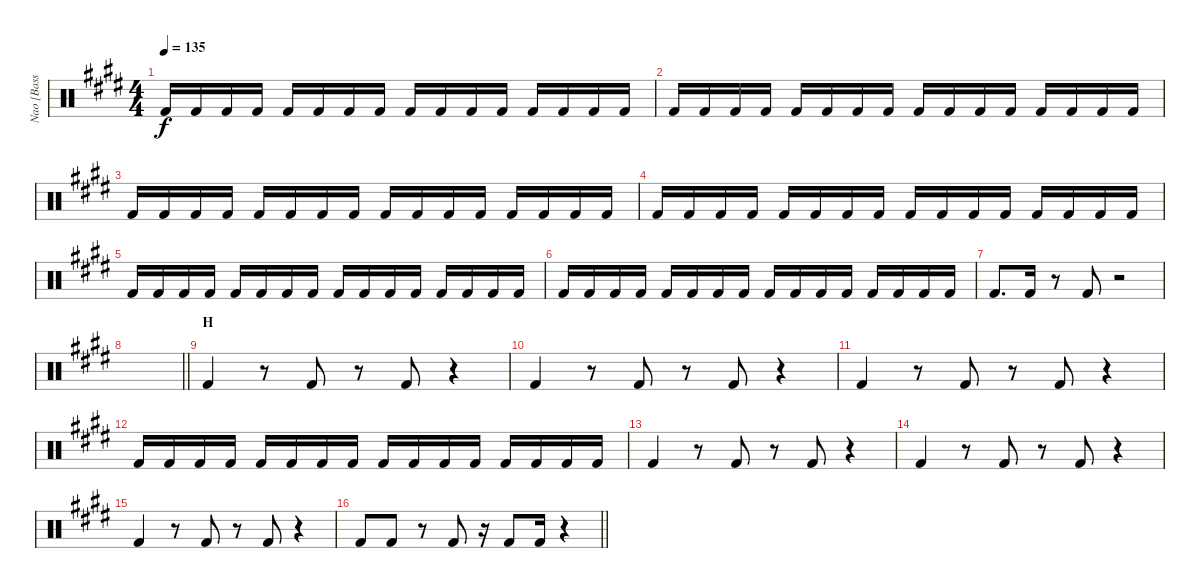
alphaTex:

\track ("Nao [Bass Drum]" "Nao [Bass ") {instrument percussion}
\staff {score}
\articulation defaults
\ts (4 4)
\tempo 135
\clef neutral
\ks e "Kick (hit) 2".16{dy f} "Kick (hit) 2".16 "Kick (hit) 2".16 "Kick (hit) 2".16 "Kick (hit) 2".16 "Kick (hit) 2".16 "Kick (hit) 2".16 "Kick (hit) 2".16 "Kick (hit) 2".16 "Kick (hit) 2".16 "Kick (hit) 2".16 "Kick (hit) 2".16 "Kick (hit) 2".16 "Kick (hit) 2".16 "Kick (hit) 2".16 "Kick (hit) 2".16
|
"Kick (hit) 2".16 "Kick (hit) 2".16 "Kick (hit) 2".16 "Kick (hit) 2".16 "Kick (hit) 2".16 "Kick (hit) 2".16 "Kick (hit) 2".16 "Kick (hit) 2".16 "Kick (hit) 2".16 "Kick (hit) 2".16 "Kick (hit) 2".16 "Kick (hit) 2".16 "Kick (hit) 2".16 "Kick (hit) 2".16 "Kick (hit) 2".16 "Kick (hit) 2".16 |
"Kick (hit) 2".16 "Kick (hit) 2".16 "Kick (hit) 2".16 "Kick (hit) 2".16 "Kick (hit) 2".16 "Kick (hit) 2".16 "Kick (hit) 2".16 "Kick (hit) 2".16 "Kick (hit) 2".16 "Kick (hit) 2".16 "Kick (hit) 2".16 "Kick (hit) 2".16 "Kick (hit) 2".16 "Kick (hit) 2".16 "Kick (hit) 2".16 "Kick (hit) 2".16 |
"Kick (hit) 2".16 "Kick (hit) 2".16 "Kick (hit) 2".16 "Kick (hit) 2".16 "Kick (hit) 2".16 "Kick (hit) 2".16 "Kick (hit) 2".16 "Kick (hit) 2".16 "Kick (hit) 2".16 "Kick (hit) 2".16 "Kick (hit) 2".16 "Kick (hit) 2".16 "Kick (hit) 2".16 "Kick (hit) 2".16 "Kick (hit) 2".16 "Kick (hit) 2".16 |
"Kick (hit) 2".16 "Kick (hit) 2".16 "Kick (hit) 2".16 "Kick (hit) 2".16 "Kick (hit) 2".16 "Kick (hit) 2".16 "Kick (hit) 2".16 "Kick (hit) 2".16 "Kick (hit) 2".16 "Kick (hit) 2".16 "Kick (hit) 2".16 "Kick (hit) 2".16 "Kick (hit) 2".16 "Kick (hit) 2".16 "Kick (hit) 2".16 "Kick (hit) 2".16 |
"Kick (hit) 2".16 "Kick (hit) 2".16 "Kick (hit) 2".16 "Kick (hit) 2".16 "Kick (hit) 2".16 "Kick (hit) 2".16 "Kick (hit) 2".16 "Kick (hit) 2".16 "Kick (hit) 2".16 "Kick (hit) 2".16 "Kick (hit) 2".16 "Kick (hit) 2".16 "Kick (hit) 2".16 "Kick (hit) 2".16 "Kick (hit) 2".16 "Kick (hit) 2".16 |
"Kick (hit) 2".8{d} "Kick (hit) 2".16 r.8 "Kick (hit) 2".8 r.2 |
\barLineRight lightlight
|
\section ("" "H")
"Kick (hit) 2".4 r.8 "Kick (hit) 2".8 r.8 "Kick (hit) 2".8 r.4 |
"Kick (hit) 2".4 r.8 "Kick (hit) 2".8 r.8 "Kick (hit) 2".8 r.4 |
"Kick (hit) 2".4 r.8 "Kick (hit) 2".8 r.8 "Kick (hit) 2".8 r.4 |
"Kick (hit) 2".16 "Kick (hit) 2".16 "Kick (hit) 2".16 "Kick (hit) 2".16 "Kick (hit) 2".16 "Kick (hit) 2".16 "Kick (hit) 2".16 "Kick (hit) 2".16 "Kick (hit) 2".16 "Kick (hit) 2".16 "Kick (hit) 2".16 "Kick (hit) 2".16 "Kick (hit) 2".16 "Kick (hit) 2".16 "Kick (hit) 2".16 "Kick (hit) 2".16 |
"Kick (hit) 2".4 r.8 "Kick (hit) 2".8 r.8 "Kick (hit) 2".8 r.4 |
"Kick (hit) 2".4 r.8 "Kick (hit) 2".8 r.8 "Kick (hit) 2".8 r.4 |
"Kick (hit) 2".4 r.8 "Kick (hit) 2".8 r.8 "Kick (hit) 2".8 r.4 |
\barLineRight lightlight "Kick (hit) 2".8 "Kick (hit) 2".8
r.8 "Kick (hit) 2".8 r.16 "Kick (hit) 2".8 "Kick (hit) 2".16 r.4
